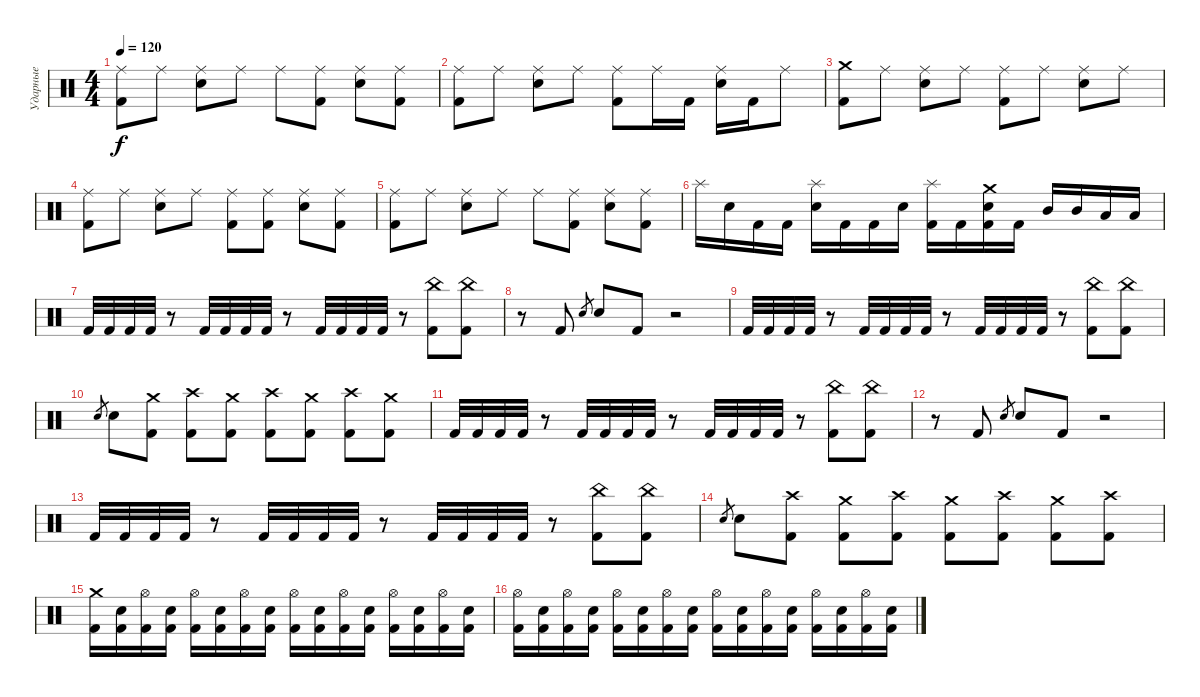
\track ("Ударные" "Ударные") {instrument percussion}
\staff {score}
\articulation defaults
\ts (4 4)
\tempo 120
\clef neutral
\ks c
("Ride (middle)" "Kick (hit) 2").8{dy f} "Ride (middle)".8 ("Ride (middle)" "Electric Snare (hit)").8 "Ride (middle)".8 "Ride (middle)".8 ("Ride (middle)" "Kick (hit) 2").8 ("Ride (middle)" "Electric Snare (hit)").8 ("Ride (middle)" "Kick (hit) 2").8 |
("Ride (middle)" "Kick (hit) 2").8 "Ride (middle)".8 ("Ride (middle)" "Electric Snare (hit)").8 "Ride (middle)".8 ("Ride (middle)" "Kick (hit) 2").8 "Ride (middle)".16 "Kick (hit) 2".16 ("Ride (middle)" "Electric Snare (hit)").16 "Kick (hit) 2".16 "Ride (middle)".8 |
("Crash medium (hit)" "Kick (hit) 2").8 "Ride (middle)".8 ("Ride (middle)" "Electric Snare (hit)").8 "Ride (middle)".8 ("Ride (middle)" "Kick (hit) 2").8 "Ride (middle)".8 ("Ride (middle)" "Electric Snare (hit)").8 "Ride (middle)".8 |
("Ride (middle)" "Kick (hit) 2").8 "Ride (middle)".8 ("Ride (middle)" "Electric Snare (hit)").8 "Ride (middle)".8 ("Ride (middle)" "Kick (hit) 2").8 ("Ride (middle)" "Kick (hit) 2").8 ("Ride (middle)" "Electric Snare (hit)").8 ("Ride (middle)" "Kick (hit) 2").8 |
("Ride (middle)" "Kick (hit) 2").8 "Ride (middle)".8 ("Ride (middle)" "Electric Snare (hit)").8 "Ride (middle)".8 "Ride (middle)".8 ("Ride (middle)" "Kick (hit) 2").8 ("Ride (middle)" "Electric Snare (hit)").8 ("Ride (middle)" "Kick (hit) 2").8 |
"Splash (hit)".16 "Electric Snare (hit)".16 "Kick (hit) 2".16 "Kick (hit) 2".16 ("Electric Snare (hit)" "Splash (hit)").16 "Kick (hit) 2".16 "Kick (hit) 2".16 "Electric Snare (hit)".16 ("Kick (hit) 2" "Splash (hit)").16 "Kick (hit) 2".16 ("Kick (hit) 2" "Electric Snare (hit)" "Crash medium (hit)").16 "Kick (hit) 2".16 "Mid Tom (hit)".16 "Mid Tom (hit)".16 "Low Tom (hit)".16 "Low Tom (hit)".16 |
"Kick (hit) 2".32 "Kick (hit) 2".32 "Kick (hit) 2".32 "Kick (hit) 2".32 r.8 "Kick (hit) 2".32 "Kick (hit) 2".32 "Kick (hit) 2".32 "Kick (hit) 2".32 r.8 "Kick (hit) 2".32 "Kick (hit) 2".32 "Kick (hit) 2".32 "Kick (hit) 2".32 r.8 ("China (hit)" "Kick (hit) 2").8 ("China (hit)" "Kick (hit) 2").8 |
r.8 "Kick (hit) 2".8 "Electric Snare (hit)".8{gr} "Electric Snare (hit)".8 "Kick (hit) 2".8 r.2 |
"Kick (hit) 2".32 "Kick (hit) 2".32 "Kick (hit) 2".32 "Kick (hit) 2".32 r.8 "Kick (hit) 2".32 "Kick (hit) 2".32 "Kick (hit) 2".32 "Kick (hit) 2".32 r.8 "Kick (hit) 2".32 "Kick (hit) 2".32 "Kick (hit) 2".32 "Kick (hit) 2".32 r.8 ("China (hit)" "Kick (hit) 2").8 ("China (hit)" "Kick (hit) 2").8 |
"Electric Snare (hit)".8{gr} "Electric Snare (hit)".8 ("Crash medium (hit)" "Kick (hit) 2").8 ("Crash high (hit)" "Kick (hit) 2").8 ("Crash medium (hit)" "Kick (hit) 2").8 ("Crash high (hit)" "Kick (hit) 2").8 ("Crash medium (hit)" "Kick (hit) 2").8 ("Crash high (hit)" "Kick (hit) 2").8 ("Crash medium (hit)" "Kick (hit) 2").8 |
"Kick (hit) 2".32 "Kick (hit) 2".32 "Kick (hit) 2".32 "Kick (hit) 2".32 r.8 "Kick (hit) 2".32 "Kick (hit) 2".32 "Kick (hit) 2".32 "Kick (hit) 2".32 r.8 "Kick (hit) 2".32 "Kick (hit) 2".32 "Kick (hit) 2".32 "Kick (hit) 2".32 r.8 ("China (hit)" "Kick (hit) 2").8 ("China (hit)" "Kick (hit) 2").8 |
r.8 "Kick (hit) 2".8 "Electric Snare (hit)".8{gr} "Electric Snare (hit)".8 "Kick (hit) 2".8 r.2 |
"Kick (hit) 2".32 "Kick (hit) 2".32 "Kick (hit) 2".32 "Kick (hit) 2".32 r.8 "Kick (hit) 2".32 "Kick (hit) 2".32 "Kick (hit) 2".32 "Kick (hit) 2".32 r.8 "Kick (hit) 2".32 "Kick (hit) 2".32 "Kick (hit) 2".32 "Kick (hit) 2".32 r.8 ("China (hit)" "Kick (hit) 2").8 ("China (hit)" "Kick (hit) 2").8 |
"Electric Snare (hit)".8{gr} "Electric Snare (hit)".8 ("Crash high (hit)" "Kick (hit) 2").8 ("Crash medium (hit)" "Kick (hit) 2").8 ("Crash high (hit)" "Kick (hit) 2").8 ("Crash medium (hit)" "Kick (hit) 2").8 ("Crash high (hit)" "Kick (hit) 2").8 ("Crash medium (hit)" "Kick (hit) 2").8 ("Crash high (hit)" "Kick (hit) 2").8 |
("Crash medium (hit)" "Kick (hit) 2").16 ("Electric Snare (hit)" "Kick (hit) 2").16 ("Hi-Hat (open)" "Kick (hit) 2").16 ("Electric Snare (hit)" "Kick (hit) 2").16 ("Hi-Hat (open)" "Kick (hit) 2").16 ("Electric Snare (hit)" "Kick (hit) 2").16 ("Hi-Hat (open)" "Kick (hit) 2").16 ("Electric Snare (hit)" "Kick (hit) 2").16 ("Hi-Hat (open)" "Kick (hit) 2").16 ("Electric Snare (hit)" "Kick (hit) 2").16 ("Hi-Hat (open)" "Kick (hit) 2").16 ("Electric Snare (hit)" "Kick (hit) 2").16 ("Hi-Hat (open)" "Kick (hit) 2").16 ("Electric Snare (hit)" "Kick (hit) 2").16 ("Hi-Hat (open)" "Kick (hit) 2").16 ("Electric Snare (hit)" "Kick (hit) 2").16 |
("Hi-Hat (open)" "Kick (hit) 2").16 ("Electric Snare (hit)" "Kick (hit) 2").16 ("Hi-Hat (open)" "Kick (hit) 2").16 ("Electric Snare (hit)" "Kick (hit) 2").16 ("Hi-Hat (open)" "Kick (hit) 2").16 ("Electric Snare (hit)" "Kick (hit) 2").16 ("Hi-Hat (open)" "Kick (hit) 2").16 ("Electric Snare (hit)" "Kick (hit) 2").16 ("Hi-Hat (open)" "Kick (hit) 2").16 ("Electric Snare (hit)" "Kick (hit) 2").16 ("Hi-Hat (open)" "Kick (hit) 2").16 ("Electric Snare (hit)" "Kick (hit) 2").16 ("Hi-Hat (open)" "Kick (hit) 2").16 ("Electric Snare (hit)" "Kick (hit) 2").16 ("Hi-Hat (open)" "Kick (hit) 2").16 ("Electric Snare (hit)" "Kick (hit) 2").16
